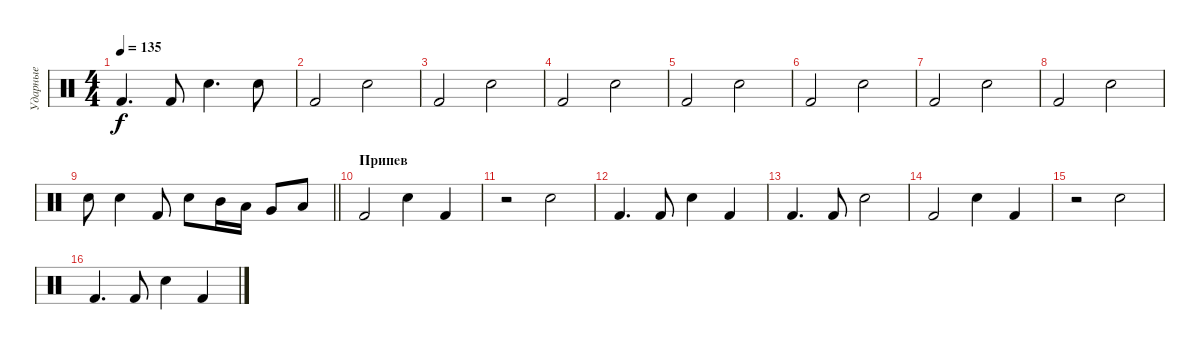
\track ("Ударные" "Ударные") {instrument percussion}
\staff {score}
\articulation defaults
\ts (4 4)
\tempo 135
\clef neutral
\ks c "Kick (hit) 2".4{d dy f} "Kick (hit) 2".8 "Snare (hit) 2".4{d} "Snare (hit) 2".8
|
"Kick (hit) 2".2 "Snare (hit) 2".2 |
"Kick (hit) 2".2 "Snare (hit) 2".2 |
"Kick (hit) 2".2 "Snare (hit) 2".2 |
"Kick (hit) 2".2 "Snare (hit) 2".2 |
"Kick (hit) 2".2 "Snare (hit) 2".2 |
"Kick (hit) 2".2 "Snare (hit) 2".2 |
"Kick (hit) 2".2 "Snare (hit) 2".2 |
\barLineRight lightlight "Snare (hit) 2".8 "Snare (hit) 2".4 "Kick (hit) 2".8 "Snare (hit) 2".8 "Mid Tom (hit)".16 "Low Tom (hit)".16 "Very Low Tom (hit)".8 "Low Floor Tom (hit)".8
|
\section ("" "Припев")
"Kick (hit) 2".2 "Snare (hit) 2".4 "Kick (hit) 2".4 |
r.2 "Snare (hit) 2".2 |
"Kick (hit) 2".4{d} "Kick (hit) 2".8 "Snare (hit) 2".4 "Kick (hit) 2".4 |
"Kick (hit) 2".4{d} "Kick (hit) 2".8 "Snare (hit) 2".2 |
"Kick (hit) 2".2 "Snare (hit) 2".4 "Kick (hit) 2".4 |
r.2 "Snare (hit) 2".2 |
"Kick (hit) 2".4{d} "Kick (hit) 2".8 "Snare (hit) 2".4 "Kick (hit) 2".4
